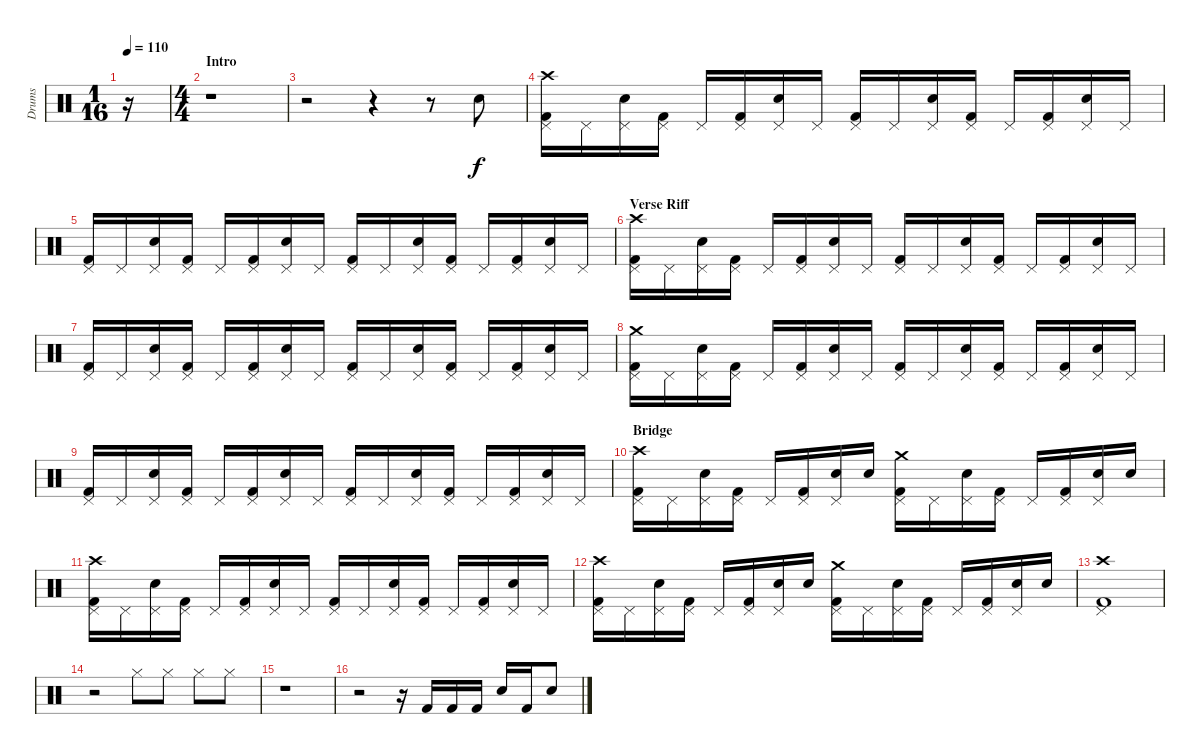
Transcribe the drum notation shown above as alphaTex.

\track ("Drums" "Drums") {instrument percussion}
\staff {score}
\articulation defaults
\ts (1 16)
\tempo 110
\clef neutral
\ks c
r.16{dy f} |
\ts (4 4)
\section ("" "Intro")
r.1 |
r.2 r.4 r.8 "Snare (hit) 2".8 |
("Kick (hit) 2" "Pedal Hi-Hat (hit)" "Crash high (hit)").16 "Pedal Hi-Hat (hit)".16 ("Snare (hit) 2" "Pedal Hi-Hat (hit)").16 ("Kick (hit) 2" "Pedal Hi-Hat (hit)").16 "Pedal Hi-Hat (hit)".16 ("Kick (hit) 2" "Pedal Hi-Hat (hit)").16 ("Snare (hit) 2" "Pedal Hi-Hat (hit)").16 "Pedal Hi-Hat (hit)".16 ("Kick (hit) 2" "Pedal Hi-Hat (hit)").16 "Pedal Hi-Hat (hit)".16 ("Snare (hit) 2" "Pedal Hi-Hat (hit)").16 ("Kick (hit) 2" "Pedal Hi-Hat (hit)").16 "Pedal Hi-Hat (hit)".16 ("Kick (hit) 2" "Pedal Hi-Hat (hit)").16 ("Snare (hit) 2" "Pedal Hi-Hat (hit)").16 "Pedal Hi-Hat (hit)".16 |
("Kick (hit) 2" "Pedal Hi-Hat (hit)").16 "Pedal Hi-Hat (hit)".16 ("Snare (hit) 2" "Pedal Hi-Hat (hit)").16 ("Kick (hit) 2" "Pedal Hi-Hat (hit)").16 "Pedal Hi-Hat (hit)".16 ("Kick (hit) 2" "Pedal Hi-Hat (hit)").16 ("Snare (hit) 2" "Pedal Hi-Hat (hit)").16 "Pedal Hi-Hat (hit)".16 ("Kick (hit) 2" "Pedal Hi-Hat (hit)").16 "Pedal Hi-Hat (hit)".16 ("Snare (hit) 2" "Pedal Hi-Hat (hit)").16 ("Kick (hit) 2" "Pedal Hi-Hat (hit)").16 "Pedal Hi-Hat (hit)".16 ("Kick (hit) 2" "Pedal Hi-Hat (hit)").16 ("Snare (hit) 2" "Pedal Hi-Hat (hit)").16 "Pedal Hi-Hat (hit)".16 |
\section ("" "Verse Riff")
("Kick (hit) 2" "Pedal Hi-Hat (hit)" "Crash high (hit)").16 "Pedal Hi-Hat (hit)".16 ("Snare (hit) 2" "Pedal Hi-Hat (hit)").16 ("Kick (hit) 2" "Pedal Hi-Hat (hit)").16 "Pedal Hi-Hat (hit)".16 ("Kick (hit) 2" "Pedal Hi-Hat (hit)").16 ("Snare (hit) 2" "Pedal Hi-Hat (hit)").16 "Pedal Hi-Hat (hit)".16 ("Kick (hit) 2" "Pedal Hi-Hat (hit)").16 "Pedal Hi-Hat (hit)".16 ("Snare (hit) 2" "Pedal Hi-Hat (hit)").16 ("Kick (hit) 2" "Pedal Hi-Hat (hit)").16 "Pedal Hi-Hat (hit)".16 ("Kick (hit) 2" "Pedal Hi-Hat (hit)").16 ("Snare (hit) 2" "Pedal Hi-Hat (hit)").16 "Pedal Hi-Hat (hit)".16 |
("Kick (hit) 2" "Pedal Hi-Hat (hit)").16 "Pedal Hi-Hat (hit)".16 ("Snare (hit) 2" "Pedal Hi-Hat (hit)").16 ("Kick (hit) 2" "Pedal Hi-Hat (hit)").16 "Pedal Hi-Hat (hit)".16 ("Kick (hit) 2" "Pedal Hi-Hat (hit)").16 ("Snare (hit) 2" "Pedal Hi-Hat (hit)").16 "Pedal Hi-Hat (hit)".16 ("Kick (hit) 2" "Pedal Hi-Hat (hit)").16 "Pedal Hi-Hat (hit)".16 ("Snare (hit) 2" "Pedal Hi-Hat (hit)").16 ("Kick (hit) 2" "Pedal Hi-Hat (hit)").16 "Pedal Hi-Hat (hit)".16 ("Kick (hit) 2" "Pedal Hi-Hat (hit)").16 ("Snare (hit) 2" "Pedal Hi-Hat (hit)").16 "Pedal Hi-Hat (hit)".16 |
("Kick (hit) 2" "Pedal Hi-Hat (hit)" "Crash medium (hit)").16 "Pedal Hi-Hat (hit)".16 ("Snare (hit) 2" "Pedal Hi-Hat (hit)").16 ("Kick (hit) 2" "Pedal Hi-Hat (hit)").16 "Pedal Hi-Hat (hit)".16 ("Kick (hit) 2" "Pedal Hi-Hat (hit)").16 ("Snare (hit) 2" "Pedal Hi-Hat (hit)").16 "Pedal Hi-Hat (hit)".16 ("Kick (hit) 2" "Pedal Hi-Hat (hit)").16 "Pedal Hi-Hat (hit)".16 ("Snare (hit) 2" "Pedal Hi-Hat (hit)").16 ("Kick (hit) 2" "Pedal Hi-Hat (hit)").16 "Pedal Hi-Hat (hit)".16 ("Kick (hit) 2" "Pedal Hi-Hat (hit)").16 ("Snare (hit) 2" "Pedal Hi-Hat (hit)").16 "Pedal Hi-Hat (hit)".16 |
("Kick (hit) 2" "Pedal Hi-Hat (hit)").16 "Pedal Hi-Hat (hit)".16 ("Snare (hit) 2" "Pedal Hi-Hat (hit)").16 ("Kick (hit) 2" "Pedal Hi-Hat (hit)").16 "Pedal Hi-Hat (hit)".16 ("Kick (hit) 2" "Pedal Hi-Hat (hit)").16 ("Snare (hit) 2" "Pedal Hi-Hat (hit)").16 "Pedal Hi-Hat (hit)".16 ("Kick (hit) 2" "Pedal Hi-Hat (hit)").16 "Pedal Hi-Hat (hit)".16 ("Snare (hit) 2" "Pedal Hi-Hat (hit)").16 ("Kick (hit) 2" "Pedal Hi-Hat (hit)").16 "Pedal Hi-Hat (hit)".16 ("Kick (hit) 2" "Pedal Hi-Hat (hit)").16 ("Snare (hit) 2" "Pedal Hi-Hat (hit)").16 "Pedal Hi-Hat (hit)".16 |
\section ("" "Bridge")
("Kick (hit) 2" "Pedal Hi-Hat (hit)" "Crash high (hit)").16 "Pedal Hi-Hat (hit)".16 ("Snare (hit) 2" "Pedal Hi-Hat (hit)").16 ("Kick (hit) 2" "Pedal Hi-Hat (hit)").16 "Pedal Hi-Hat (hit)".16 ("Kick (hit) 2" "Pedal Hi-Hat (hit)").16 ("Snare (hit) 2" "Pedal Hi-Hat (hit)").16 "Snare (hit) 2".16 ("Kick (hit) 2" "Pedal Hi-Hat (hit)" "Crash medium (hit)").16 "Pedal Hi-Hat (hit)".16 ("Snare (hit) 2" "Pedal Hi-Hat (hit)").16 ("Kick (hit) 2" "Pedal Hi-Hat (hit)").16 "Pedal Hi-Hat (hit)".16 ("Kick (hit) 2" "Pedal Hi-Hat (hit)").16 ("Snare (hit) 2" "Pedal Hi-Hat (hit)").16 "Snare (hit) 2".16 |
("Kick (hit) 2" "Pedal Hi-Hat (hit)" "Crash high (hit)").16 "Pedal Hi-Hat (hit)".16 ("Snare (hit) 2" "Pedal Hi-Hat (hit)").16 ("Kick (hit) 2" "Pedal Hi-Hat (hit)").16 "Pedal Hi-Hat (hit)".16 ("Kick (hit) 2" "Pedal Hi-Hat (hit)").16 ("Snare (hit) 2" "Pedal Hi-Hat (hit)").16 "Pedal Hi-Hat (hit)".16 ("Kick (hit) 2" "Pedal Hi-Hat (hit)").16 "Pedal Hi-Hat (hit)".16 ("Snare (hit) 2" "Pedal Hi-Hat (hit)").16 ("Kick (hit) 2" "Pedal Hi-Hat (hit)").16 "Pedal Hi-Hat (hit)".16 ("Kick (hit) 2" "Pedal Hi-Hat (hit)").16 ("Snare (hit) 2" "Pedal Hi-Hat (hit)").16 "Pedal Hi-Hat (hit)".16 |
("Kick (hit) 2" "Pedal Hi-Hat (hit)" "Crash high (hit)").16 "Pedal Hi-Hat (hit)".16 ("Snare (hit) 2" "Pedal Hi-Hat (hit)").16 ("Kick (hit) 2" "Pedal Hi-Hat (hit)").16 "Pedal Hi-Hat (hit)".16 ("Kick (hit) 2" "Pedal Hi-Hat (hit)").16 ("Snare (hit) 2" "Pedal Hi-Hat (hit)").16 "Snare (hit) 2".16 ("Kick (hit) 2" "Pedal Hi-Hat (hit)" "Crash medium (hit)").16 "Pedal Hi-Hat (hit)".16 ("Snare (hit) 2" "Pedal Hi-Hat (hit)").16 ("Kick (hit) 2" "Pedal Hi-Hat (hit)").16 "Pedal Hi-Hat (hit)".16 ("Kick (hit) 2" "Pedal Hi-Hat (hit)").16 ("Snare (hit) 2" "Pedal Hi-Hat (hit)").16 "Snare (hit) 2".16 |
("Kick (hit) 2" "Pedal Hi-Hat (hit)" "Crash high (hit)").1 |
r.2 "Hi-Hat (closed)".8 "Hi-Hat (closed)".8 "Hi-Hat (closed)".8 "Hi-Hat (closed)".8 |
r.1 |
r.2 r.16 "Kick (hit) 2".16 "Kick (hit) 2".16 "Kick (hit) 2".16 "Snare (hit) 2".16 "Kick (hit) 2".16 "Snare (hit) 2".8
